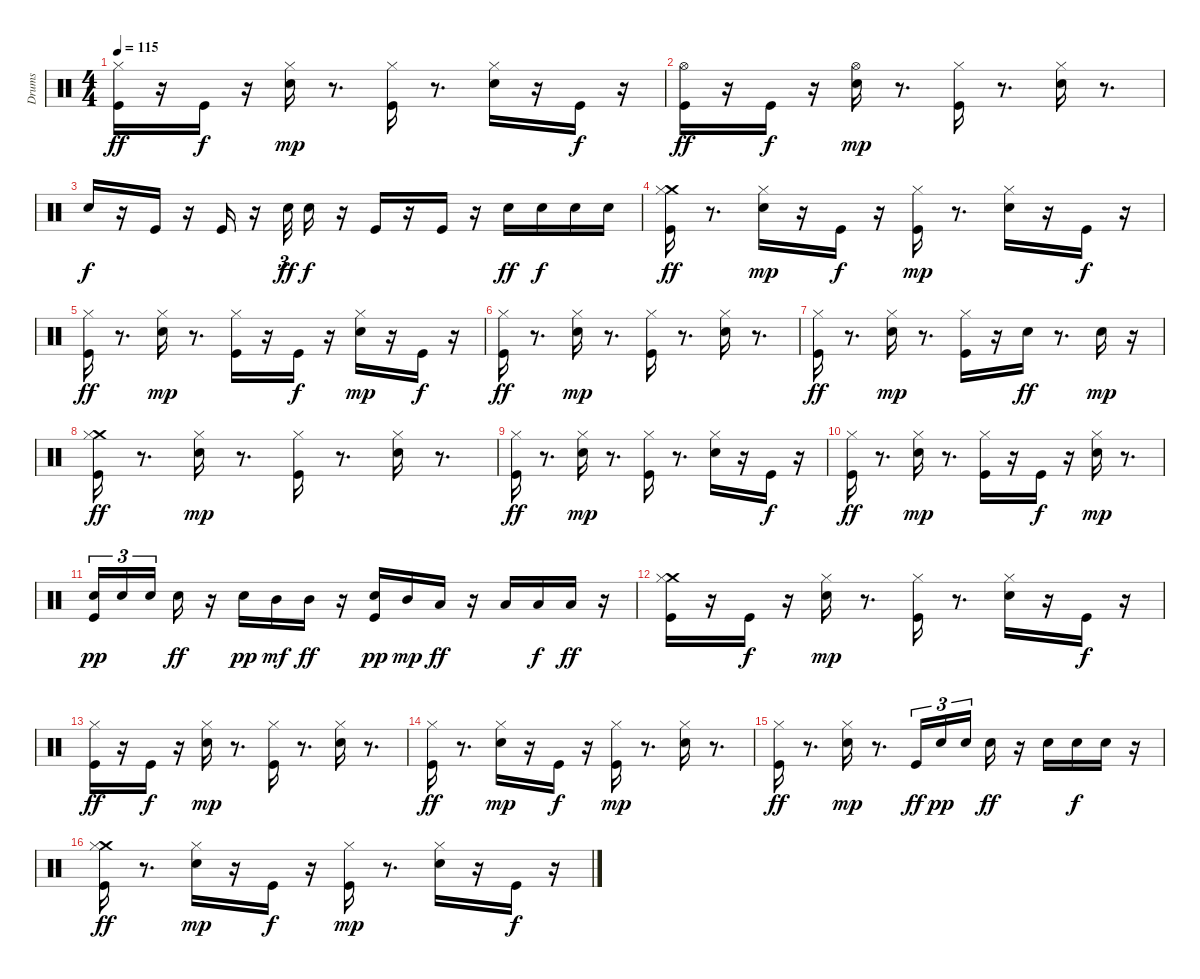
\track ("Drums" "Drums") {instrument percussion}
\staff {score}
\articulation defaults
\ts (4 4)
\tempo 115
\clef neutral
\ks c
("Kick (hit)" "Hi-Hat (closed)").16{dy ff} r.16 "Kick (hit)".16{dy f} r.16 ("Electric Snare (hit)" "Hi-Hat (closed)").16{dy mp} r.8{d} ("Kick (hit)" "Hi-Hat (closed)").16 r.8{d} ("Electric Snare (hit)" "Hi-Hat (closed)").16 r.16 "Kick (hit)".16{dy f} r.16 |
("Kick (hit)" "Hi-Hat (open)").16{dy ff} r.16 "Kick (hit)".16{dy f} r.16 ("Electric Snare (hit)" "Hi-Hat (open)").16{dy mp} r.8{d} ("Kick (hit)" "Hi-Hat (closed)").16 r.8{d} ("Electric Snare (hit)" "Hi-Hat (closed)").16 r.8{d} |
"Electric Snare (hit)".16{dy f} r.16 "Kick (hit)".16 r.16 "Kick (hit)".16 r.16 "Electric Snare (hit)".32{tu (3 2) dy ff} "Electric Snare (hit)".16{dy f} r.16 "Kick (hit)".16 r.16 "Kick (hit)".16 r.16 "Electric Snare (hit)".16{dy ff} "Electric Snare (hit)".16{dy f} "Electric Snare (hit)".16 "Electric Snare (hit)".16 |
("Crash medium (hit)" "Kick (hit)" "Hi-Hat (closed)").16{dy ff} r.8{d} ("Electric Snare (hit)" "Hi-Hat (closed)").16{dy mp} r.16 "Kick (hit)".16{dy f} r.16 ("Kick (hit)" "Hi-Hat (closed)").16{dy mp} r.8{d} ("Electric Snare (hit)" "Hi-Hat (closed)").16 r.16 "Kick (hit)".16{dy f} r.16 |
("Kick (hit)" "Hi-Hat (closed)").16{dy ff} r.8{d} ("Electric Snare (hit)" "Hi-Hat (closed)").16{dy mp} r.8{d} ("Kick (hit)" "Hi-Hat (closed)").16 r.16 "Kick (hit)".16{dy f} r.16 ("Electric Snare (hit)" "Hi-Hat (closed)").16{dy mp} r.16 "Kick (hit)".16{dy f} r.16 |
("Kick (hit)" "Hi-Hat (closed)").16{dy ff} r.8{d} ("Electric Snare (hit)" "Hi-Hat (closed)").16{dy mp} r.8{d} ("Kick (hit)" "Hi-Hat (closed)").16 r.8{d} ("Electric Snare (hit)" "Hi-Hat (closed)").16 r.8{d} |
("Kick (hit)" "Hi-Hat (closed)").16{dy ff} r.8{d} ("Electric Snare (hit)" "Hi-Hat (closed)").16{dy mp} r.8{d} ("Kick (hit)" "Hi-Hat (closed)").16 r.16 "Electric Snare (hit)".16{dy ff} r.8{d} "Electric Snare (hit)".16{dy mp} r.16 |
("Crash medium (hit)" "Kick (hit)" "Hi-Hat (closed)").16{dy ff} r.8{d} ("Electric Snare (hit)" "Hi-Hat (closed)").16{dy mp} r.8{d} ("Kick (hit)" "Hi-Hat (closed)").16 r.8{d} ("Electric Snare (hit)" "Hi-Hat (closed)").16 r.8{d} |
("Kick (hit)" "Hi-Hat (closed)").16{dy ff} r.8{d} ("Electric Snare (hit)" "Hi-Hat (closed)").16{dy mp} r.8{d} ("Kick (hit)" "Hi-Hat (closed)").16 r.8{d} ("Electric Snare (hit)" "Hi-Hat (closed)").16 r.16 "Kick (hit)".16{dy f} r.16 |
("Kick (hit)" "Hi-Hat (closed)").16{dy ff} r.8{d} ("Electric Snare (hit)" "Hi-Hat (closed)").16{dy mp} r.8{d} ("Kick (hit)" "Hi-Hat (closed)").16 r.16 "Kick (hit)".16{dy f} r.16 ("Electric Snare (hit)" "Hi-Hat (closed)").16{dy mp} r.8{d} |
("Kick (hit)" "Electric Snare (hit)").16{tu (3 2) dy pp} "Electric Snare (hit)".16{tu (3 2)} "Electric Snare (hit)".16{tu (3 2) beam splitsecondary} "Electric Snare (hit)".16{dy ff} r.16 "Electric Snare (hit)".16{dy pp} "Mid Tom (hit)".16{dy mf} "Mid Tom (hit)".16{dy ff} r.16 ("Kick (hit)" "Electric Snare (hit)").16{dy pp} "Mid Tom (hit)".16{dy mp} "Low Tom (hit)".16{dy ff} r.16 "Low Tom (hit)".16 "Low Tom (hit)".16{dy f} "Low Tom (hit)".16{dy ff} r.16 |
("Crash medium (hit)" "Kick (hit)" "Hi-Hat (closed)").16 r.16 "Kick (hit)".16{dy f} r.16 ("Electric Snare (hit)" "Hi-Hat (closed)").16{dy mp} r.8{d} ("Kick (hit)" "Hi-Hat (closed)").16 r.8{d} ("Electric Snare (hit)" "Hi-Hat (closed)").16 r.16 "Kick (hit)".16{dy f} r.16 |
("Kick (hit)" "Hi-Hat (closed)").16{dy ff} r.16 "Kick (hit)".16{dy f} r.16 ("Electric Snare (hit)" "Hi-Hat (closed)").16{dy mp} r.8{d} ("Kick (hit)" "Hi-Hat (closed)").16 r.8{d} ("Electric Snare (hit)" "Hi-Hat (closed)").16 r.8{d} |
("Kick (hit)" "Hi-Hat (closed)").16{dy ff} r.8{d} ("Electric Snare (hit)" "Hi-Hat (closed)").16{dy mp} r.16 "Kick (hit)".16{dy f} r.16 ("Kick (hit)" "Hi-Hat (closed)").16{dy mp} r.8{d} ("Electric Snare (hit)" "Hi-Hat (closed)").16 r.8{d} |
("Kick (hit)" "Hi-Hat (closed)").16{dy ff} r.8{d} ("Electric Snare (hit)" "Hi-Hat (closed)").16{dy mp} r.8{d} "Kick (hit)".16{tu (3 2) dy ff} "Electric Snare (hit)".16{tu (3 2) dy pp} "Electric Snare (hit)".16{tu (3 2) beam splitsecondary} "Electric Snare (hit)".16{dy ff} r.16 "Electric Snare (hit)".16 "Electric Snare (hit)".16{dy f} "Electric Snare (hit)".16 r.16 |
("Crash medium (hit)" "Kick (hit)" "Hi-Hat (closed)").16{dy ff} r.8{d} ("Electric Snare (hit)" "Hi-Hat (closed)").16{dy mp} r.16 "Kick (hit)".16{dy f} r.16 ("Kick (hit)" "Hi-Hat (closed)").16{dy mp} r.8{d} ("Electric Snare (hit)" "Hi-Hat (closed)").16 r.16 "Kick (hit)".16{dy f} r.16
